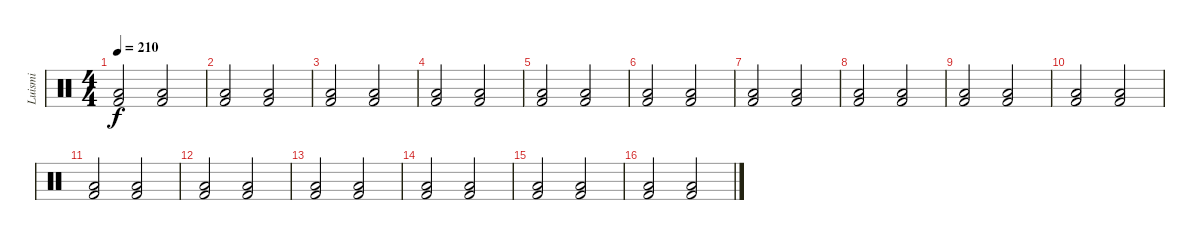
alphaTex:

\track ("Luismi" "Luismi") {instrument percussion}
\staff {score}
\articulation defaults
\ts (4 4)
\tempo 210
\clef neutral
\ks c
("Low Floor Tom (hit)" "Kick (hit) 2").2{dy f} ("Low Floor Tom (hit)" "Kick (hit) 2").2 |
("Low Floor Tom (hit)" "Kick (hit) 2").2 ("Low Floor Tom (hit)" "Kick (hit) 2").2 |
("Low Floor Tom (hit)" "Kick (hit) 2").2 ("Low Floor Tom (hit)" "Kick (hit) 2").2 |
("Low Floor Tom (hit)" "Kick (hit) 2").2 ("Low Floor Tom (hit)" "Kick (hit) 2").2 |
("Low Floor Tom (hit)" "Kick (hit) 2").2 ("Low Floor Tom (hit)" "Kick (hit) 2").2 |
("Low Floor Tom (hit)" "Kick (hit) 2").2 ("Low Floor Tom (hit)" "Kick (hit) 2").2 |
("Low Floor Tom (hit)" "Kick (hit) 2").2 ("Low Floor Tom (hit)" "Kick (hit) 2").2 |
("Low Floor Tom (hit)" "Kick (hit) 2").2 ("Low Floor Tom (hit)" "Kick (hit) 2").2 |
("Low Floor Tom (hit)" "Kick (hit) 2").2 ("Low Floor Tom (hit)" "Kick (hit) 2").2 |
("Low Floor Tom (hit)" "Kick (hit) 2").2 ("Low Floor Tom (hit)" "Kick (hit) 2").2 |
("Low Floor Tom (hit)" "Kick (hit) 2").2 ("Low Floor Tom (hit)" "Kick (hit) 2").2 |
("Low Floor Tom (hit)" "Kick (hit) 2").2 ("Low Floor Tom (hit)" "Kick (hit) 2").2 |
("Low Floor Tom (hit)" "Kick (hit) 2").2 ("Low Floor Tom (hit)" "Kick (hit) 2").2 |
("Low Floor Tom (hit)" "Kick (hit) 2").2 ("Low Floor Tom (hit)" "Kick (hit) 2").2 |
("Low Floor Tom (hit)" "Kick (hit) 2").2 ("Low Floor Tom (hit)" "Kick (hit) 2").2 |
("Low Floor Tom (hit)" "Kick (hit) 2").2 ("Low Floor Tom (hit)" "Kick (hit) 2").2
